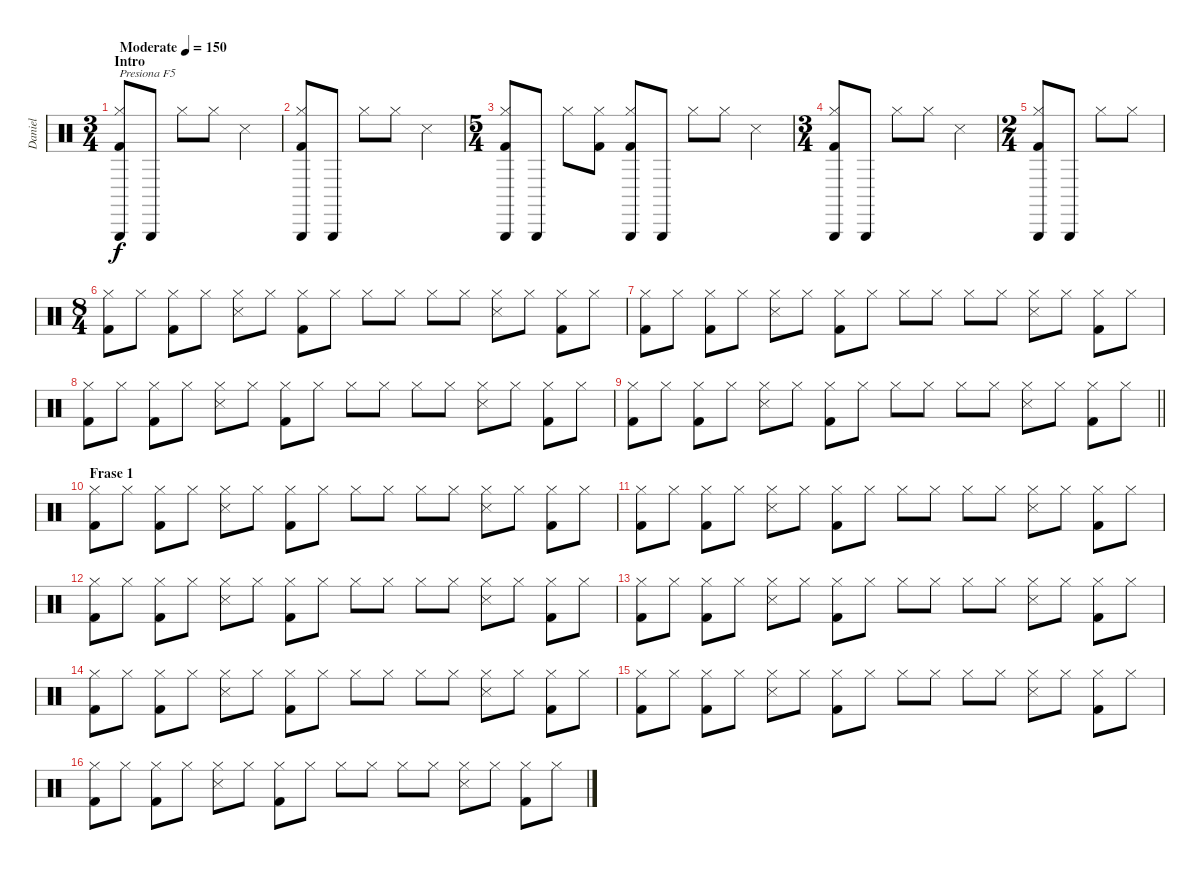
\track ("Daniel" "Daniel") {instrument percussion}
\staff {score}
\articulation defaults
\ts (3 4)
\section ("" "Intro")
\tempo (150 "Moderate")
\clef neutral
\ks c
("Triangle (hit)" "Hi-Hat (closed)" "Kick (hit) 2").8{txt "Presiona F5" dy f} "Triangle (hit)".8 "Hi-Hat (closed)".8 "Hi-Hat (closed)".8 "Snare (side stick) 3".4 |
("Triangle (hit)" "Hi-Hat (closed)" "Kick (hit) 2").8 "Triangle (hit)".8 "Hi-Hat (closed)".8 "Hi-Hat (closed)".8 "Snare (side stick) 3".4 |
\ts (5 4)
("Triangle (hit)" "Hi-Hat (closed)" "Kick (hit) 2").8 "Triangle (hit)".8 "Hi-Hat (closed)".8 ("Hi-Hat (closed)" "Kick (hit) 2").8 ("Triangle (hit)" "Hi-Hat (closed)" "Kick (hit) 2").8 "Triangle (hit)".8 "Hi-Hat (closed)".8 "Hi-Hat (closed)".8 "Snare (side stick) 3".4 |
\ts (3 4)
("Triangle (hit)" "Hi-Hat (closed)" "Kick (hit) 2").8 "Triangle (hit)".8 "Hi-Hat (closed)".8 "Hi-Hat (closed)".8 "Snare (side stick) 3".4 |
\ts (2 4)
("Triangle (hit)" "Hi-Hat (closed)" "Kick (hit) 2").8 "Triangle (hit)".8 "Hi-Hat (closed)".8 "Hi-Hat (closed)".8 |
\ts (8 4)
("Hi-Hat (closed)" "Kick (hit) 2").8 "Hi-Hat (closed)".8 ("Hi-Hat (closed)" "Kick (hit) 2").8 "Hi-Hat (closed)".8 ("Hi-Hat (closed)" "Snare (side stick) 3").8 "Hi-Hat (closed)".8 ("Hi-Hat (closed)" "Kick (hit) 2").8 "Hi-Hat (closed)".8 "Hi-Hat (closed)".8 "Hi-Hat (closed)".8 "Hi-Hat (closed)".8 "Hi-Hat (closed)".8 ("Hi-Hat (closed)" "Snare (side stick) 3").8 "Hi-Hat (closed)".8 ("Hi-Hat (closed)" "Kick (hit) 2").8 "Hi-Hat (closed)".8 |
("Hi-Hat (closed)" "Kick (hit) 2").8 "Hi-Hat (closed)".8 ("Hi-Hat (closed)" "Kick (hit) 2").8 "Hi-Hat (closed)".8 ("Hi-Hat (closed)" "Snare (side stick) 3").8 "Hi-Hat (closed)".8 ("Hi-Hat (closed)" "Kick (hit) 2").8 "Hi-Hat (closed)".8 "Hi-Hat (closed)".8 "Hi-Hat (closed)".8 "Hi-Hat (closed)".8 "Hi-Hat (closed)".8 ("Hi-Hat (closed)" "Snare (side stick) 3").8 "Hi-Hat (closed)".8 ("Hi-Hat (closed)" "Kick (hit) 2").8 "Hi-Hat (closed)".8 |
("Hi-Hat (closed)" "Kick (hit) 2").8 "Hi-Hat (closed)".8 ("Hi-Hat (closed)" "Kick (hit) 2").8 "Hi-Hat (closed)".8 ("Hi-Hat (closed)" "Snare (side stick) 3").8 "Hi-Hat (closed)".8 ("Hi-Hat (closed)" "Kick (hit) 2").8 "Hi-Hat (closed)".8 "Hi-Hat (closed)".8 "Hi-Hat (closed)".8 "Hi-Hat (closed)".8 "Hi-Hat (closed)".8 ("Hi-Hat (closed)" "Snare (side stick) 3").8 "Hi-Hat (closed)".8 ("Hi-Hat (closed)" "Kick (hit) 2").8 "Hi-Hat (closed)".8 |
\barLineRight lightlight
("Hi-Hat (closed)" "Kick (hit) 2").8 "Hi-Hat (closed)".8 ("Hi-Hat (closed)" "Kick (hit) 2").8 "Hi-Hat (closed)".8 ("Hi-Hat (closed)" "Snare (side stick) 3").8 "Hi-Hat (closed)".8 ("Hi-Hat (closed)" "Kick (hit) 2").8 "Hi-Hat (closed)".8 "Hi-Hat (closed)".8 "Hi-Hat (closed)".8 "Hi-Hat (closed)".8 "Hi-Hat (closed)".8 ("Hi-Hat (closed)" "Snare (side stick) 3").8 "Hi-Hat (closed)".8 ("Hi-Hat (closed)" "Kick (hit) 2").8 "Hi-Hat (closed)".8 |
\section ("" "Frase 1")
("Hi-Hat (closed)" "Kick (hit) 2").8 "Hi-Hat (closed)".8 ("Hi-Hat (closed)" "Kick (hit) 2").8 "Hi-Hat (closed)".8 ("Hi-Hat (closed)" "Snare (side stick) 3").8 "Hi-Hat (closed)".8 ("Hi-Hat (closed)" "Kick (hit) 2").8 "Hi-Hat (closed)".8 "Hi-Hat (closed)".8 "Hi-Hat (closed)".8 "Hi-Hat (closed)".8 "Hi-Hat (closed)".8 ("Hi-Hat (closed)" "Snare (side stick) 3").8 "Hi-Hat (closed)".8 ("Hi-Hat (closed)" "Kick (hit) 2").8 "Hi-Hat (closed)".8 |
("Hi-Hat (closed)" "Kick (hit) 2").8 "Hi-Hat (closed)".8 ("Hi-Hat (closed)" "Kick (hit) 2").8 "Hi-Hat (closed)".8 ("Hi-Hat (closed)" "Snare (side stick) 3").8 "Hi-Hat (closed)".8 ("Hi-Hat (closed)" "Kick (hit) 2").8 "Hi-Hat (closed)".8 "Hi-Hat (closed)".8 "Hi-Hat (closed)".8 "Hi-Hat (closed)".8 "Hi-Hat (closed)".8 ("Hi-Hat (closed)" "Snare (side stick) 3").8 "Hi-Hat (closed)".8 ("Hi-Hat (closed)" "Kick (hit) 2").8 "Hi-Hat (closed)".8 |
("Hi-Hat (closed)" "Kick (hit) 2").8 "Hi-Hat (closed)".8 ("Hi-Hat (closed)" "Kick (hit) 2").8 "Hi-Hat (closed)".8 ("Hi-Hat (closed)" "Snare (side stick) 3").8 "Hi-Hat (closed)".8 ("Hi-Hat (closed)" "Kick (hit) 2").8 "Hi-Hat (closed)".8 "Hi-Hat (closed)".8 "Hi-Hat (closed)".8 "Hi-Hat (closed)".8 "Hi-Hat (closed)".8 ("Hi-Hat (closed)" "Snare (side stick) 3").8 "Hi-Hat (closed)".8 ("Hi-Hat (closed)" "Kick (hit) 2").8 "Hi-Hat (closed)".8 |
("Hi-Hat (closed)" "Kick (hit) 2").8 "Hi-Hat (closed)".8 ("Hi-Hat (closed)" "Kick (hit) 2").8 "Hi-Hat (closed)".8 ("Hi-Hat (closed)" "Snare (side stick) 3").8 "Hi-Hat (closed)".8 ("Hi-Hat (closed)" "Kick (hit) 2").8 "Hi-Hat (closed)".8 "Hi-Hat (closed)".8 "Hi-Hat (closed)".8 "Hi-Hat (closed)".8 "Hi-Hat (closed)".8 ("Hi-Hat (closed)" "Snare (side stick) 3").8 "Hi-Hat (closed)".8 ("Hi-Hat (closed)" "Kick (hit) 2").8 "Hi-Hat (closed)".8 |
("Hi-Hat (closed)" "Kick (hit) 2").8 "Hi-Hat (closed)".8 ("Hi-Hat (closed)" "Kick (hit) 2").8 "Hi-Hat (closed)".8 ("Hi-Hat (closed)" "Snare (side stick) 3").8 "Hi-Hat (closed)".8 ("Hi-Hat (closed)" "Kick (hit) 2").8 "Hi-Hat (closed)".8 "Hi-Hat (closed)".8 "Hi-Hat (closed)".8 "Hi-Hat (closed)".8 "Hi-Hat (closed)".8 ("Hi-Hat (closed)" "Snare (side stick) 3").8 "Hi-Hat (closed)".8 ("Hi-Hat (closed)" "Kick (hit) 2").8 "Hi-Hat (closed)".8 |
("Hi-Hat (closed)" "Kick (hit) 2").8 "Hi-Hat (closed)".8 ("Hi-Hat (closed)" "Kick (hit) 2").8 "Hi-Hat (closed)".8 ("Hi-Hat (closed)" "Snare (side stick) 3").8 "Hi-Hat (closed)".8 ("Hi-Hat (closed)" "Kick (hit) 2").8 "Hi-Hat (closed)".8 "Hi-Hat (closed)".8 "Hi-Hat (closed)".8 "Hi-Hat (closed)".8 "Hi-Hat (closed)".8 ("Hi-Hat (closed)" "Snare (side stick) 3").8 "Hi-Hat (closed)".8 ("Hi-Hat (closed)" "Kick (hit) 2").8 "Hi-Hat (closed)".8 |
("Hi-Hat (closed)" "Kick (hit) 2").8 "Hi-Hat (closed)".8 ("Hi-Hat (closed)" "Kick (hit) 2").8 "Hi-Hat (closed)".8 ("Hi-Hat (closed)" "Snare (side stick) 3").8 "Hi-Hat (closed)".8 ("Hi-Hat (closed)" "Kick (hit) 2").8 "Hi-Hat (closed)".8 "Hi-Hat (closed)".8 "Hi-Hat (closed)".8 "Hi-Hat (closed)".8 "Hi-Hat (closed)".8 ("Hi-Hat (closed)" "Snare (side stick) 3").8 "Hi-Hat (closed)".8 ("Hi-Hat (closed)" "Kick (hit) 2").8 "Hi-Hat (closed)".8
